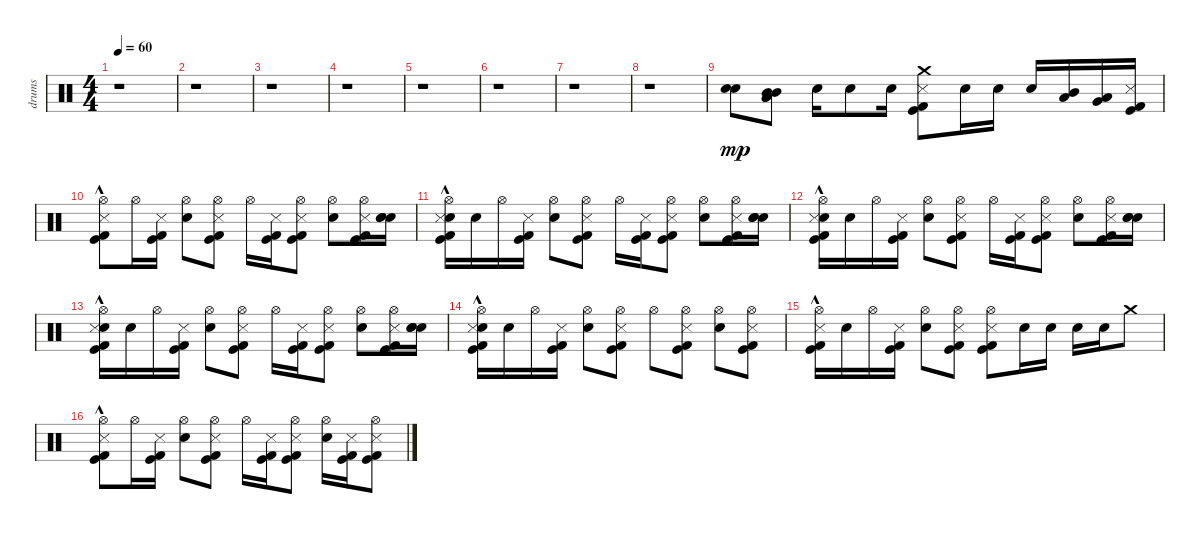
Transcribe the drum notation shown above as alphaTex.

\track ("drums" "drums") {instrument percussion}
\staff {score}
\articulation defaults
\ts (4 4)
\tempo 60
\clef neutral
\ks c
r.1{dy mp} |
r.1 |
r.1 |
r.1 |
r.1 |
r.1 |
r.1 |
r.1 |
("Snare (hit) 2" "Snare (hit) 2").8 ("Low Tom (hit)" "Mid Tom (hit)" "Low Tom (hit)" "Mid Tom (hit)").8 "Snare (hit) 2".16 "Snare (hit) 2".8 "Snare (hit) 2".16 ("Crash medium (hit)" "Metronome (hit)" "Kick (hit)" "Kick (hit) 2").8 "Snare (hit) 2".16 "Snare (hit) 2".16 "Snare (hit) 2".16 ("Low Tom (hit)" "Mid Tom (hit)").16 ("Very Low Tom (hit)" "Low Tom (hit)").16 ("Metronome (hit)" "Kick (hit)" "Kick (hit) 2").16 |
("Hi-Hat (open)" "Metronome (hit)"{hac} "Kick (hit)"{hac} "Kick (hit) 2"{hac}).8 "Hi-Hat (open)".16 ("Metronome (hit)" "Kick (hit)" "Kick (hit) 2").16 ("Snare (hit) 2" "Hi-Hat (open)").8 ("Hi-Hat (open)" "Metronome (hit)" "Kick (hit)" "Kick (hit) 2").8 "Hi-Hat (open)".16 ("Metronome (hit)" "Kick (hit)" "Kick (hit) 2").16 ("Hi-Hat (open)" "Metronome (hit)" "Kick (hit)" "Kick (hit) 2").8 ("Snare (hit) 2" "Hi-Hat (open)").8 ("Hi-Hat (open)" "Metronome (hit)" "Kick (hit)" "Kick (hit) 2").16 ("Snare (hit) 2" "Snare (hit) 2" "Snare (hit) 2").16 |
("Snare (hit) 2" "Hi-Hat (open)" "Metronome (hit)"{hac} "Kick (hit)"{hac} "Kick (hit) 2"{hac}).16 "Snare (hit) 2".16 "Hi-Hat (open)".16 ("Metronome (hit)" "Kick (hit)" "Kick (hit) 2").16 ("Snare (hit) 2" "Hi-Hat (open)").8 ("Hi-Hat (open)" "Metronome (hit)" "Kick (hit)" "Kick (hit) 2").8 "Hi-Hat (open)".16 ("Metronome (hit)" "Kick (hit)" "Kick (hit) 2").16 ("Hi-Hat (open)" "Metronome (hit)" "Kick (hit)" "Kick (hit) 2").8 ("Snare (hit) 2" "Hi-Hat (open)").8 ("Hi-Hat (open)" "Metronome (hit)" "Kick (hit)" "Kick (hit) 2").16 ("Snare (hit) 2" "Snare (hit) 2" "Snare (hit) 2").16 |
("Snare (hit) 2" "Hi-Hat (open)" "Metronome (hit)"{hac} "Kick (hit)"{hac} "Kick (hit) 2"{hac}).16 "Snare (hit) 2".16 "Hi-Hat (open)".16 ("Metronome (hit)" "Kick (hit)" "Kick (hit) 2").16 ("Snare (hit) 2" "Hi-Hat (open)").8 ("Hi-Hat (open)" "Metronome (hit)" "Kick (hit)" "Kick (hit) 2").8 "Hi-Hat (open)".16 ("Metronome (hit)" "Kick (hit)" "Kick (hit) 2").16 ("Hi-Hat (open)" "Metronome (hit)" "Kick (hit)" "Kick (hit) 2").8 ("Snare (hit) 2" "Hi-Hat (open)").8 ("Hi-Hat (open)" "Metronome (hit)" "Kick (hit)" "Kick (hit) 2").16 ("Snare (hit) 2" "Snare (hit) 2" "Snare (hit) 2").16 |
("Snare (hit) 2" "Hi-Hat (open)" "Metronome (hit)"{hac} "Kick (hit)"{hac} "Kick (hit) 2"{hac}).16 "Snare (hit) 2".16 "Hi-Hat (open)".16 ("Metronome (hit)" "Kick (hit)" "Kick (hit) 2").16 ("Snare (hit) 2" "Hi-Hat (open)").8 ("Hi-Hat (open)" "Metronome (hit)" "Kick (hit)" "Kick (hit) 2").8 "Hi-Hat (open)".16 ("Metronome (hit)" "Kick (hit)" "Kick (hit) 2").16 ("Hi-Hat (open)" "Metronome (hit)" "Kick (hit)" "Kick (hit) 2").8 ("Snare (hit) 2" "Hi-Hat (open)").8 ("Hi-Hat (open)" "Metronome (hit)" "Kick (hit)" "Kick (hit) 2").16 ("Snare (hit) 2" "Snare (hit) 2" "Snare (hit) 2").16 |
("Snare (hit) 2" "Hi-Hat (open)" "Metronome (hit)"{hac} "Kick (hit)"{hac} "Kick (hit) 2"{hac}).16 "Snare (hit) 2".16 "Hi-Hat (open)".16 ("Metronome (hit)" "Kick (hit)" "Kick (hit) 2").16 ("Snare (hit) 2" "Hi-Hat (open)").8 ("Hi-Hat (open)" "Metronome (hit)" "Kick (hit)" "Kick (hit) 2").8 "Hi-Hat (open)".8 ("Hi-Hat (open)" "Metronome (hit)" "Kick (hit)" "Kick (hit) 2").8 ("Snare (hit) 2" "Hi-Hat (open)").8 ("Hi-Hat (open)" "Metronome (hit)" "Kick (hit)" "Kick (hit) 2").8 |
("Hi-Hat (open)" "Metronome (hit)"{hac} "Kick (hit)"{hac} "Kick (hit) 2"{hac}).16 "Snare (hit) 2".16 "Hi-Hat (open)".16 ("Metronome (hit)" "Kick (hit)" "Kick (hit) 2").16 ("Snare (hit) 2" "Hi-Hat (open)").8 ("Hi-Hat (open)" "Metronome (hit)" "Kick (hit)" "Kick (hit) 2").8 ("Hi-Hat (open)" "Metronome (hit)" "Kick (hit)" "Kick (hit) 2").8 "Snare (hit) 2".16 "Snare (hit) 2".16 "Snare (hit) 2".16 "Snare (hit) 2".16 "Crash medium (hit)".8 |
("Hi-Hat (open)" "Metronome (hit)"{hac} "Kick (hit)"{hac} "Kick (hit) 2"{hac}).8 "Hi-Hat (open)".16 ("Metronome (hit)" "Kick (hit)" "Kick (hit) 2").16 ("Snare (hit) 2" "Hi-Hat (open)").8 ("Hi-Hat (open)" "Metronome (hit)" "Kick (hit)" "Kick (hit) 2").8 "Hi-Hat (open)".16 ("Metronome (hit)" "Kick (hit)" "Kick (hit) 2").16 ("Hi-Hat (open)" "Metronome (hit)" "Kick (hit)" "Kick (hit) 2").8 ("Snare (hit) 2" "Hi-Hat (open)").16 ("Metronome (hit)" "Kick (hit)" "Kick (hit) 2").16 ("Hi-Hat (open)" "Metronome (hit)" "Kick (hit)" "Kick (hit) 2").8
